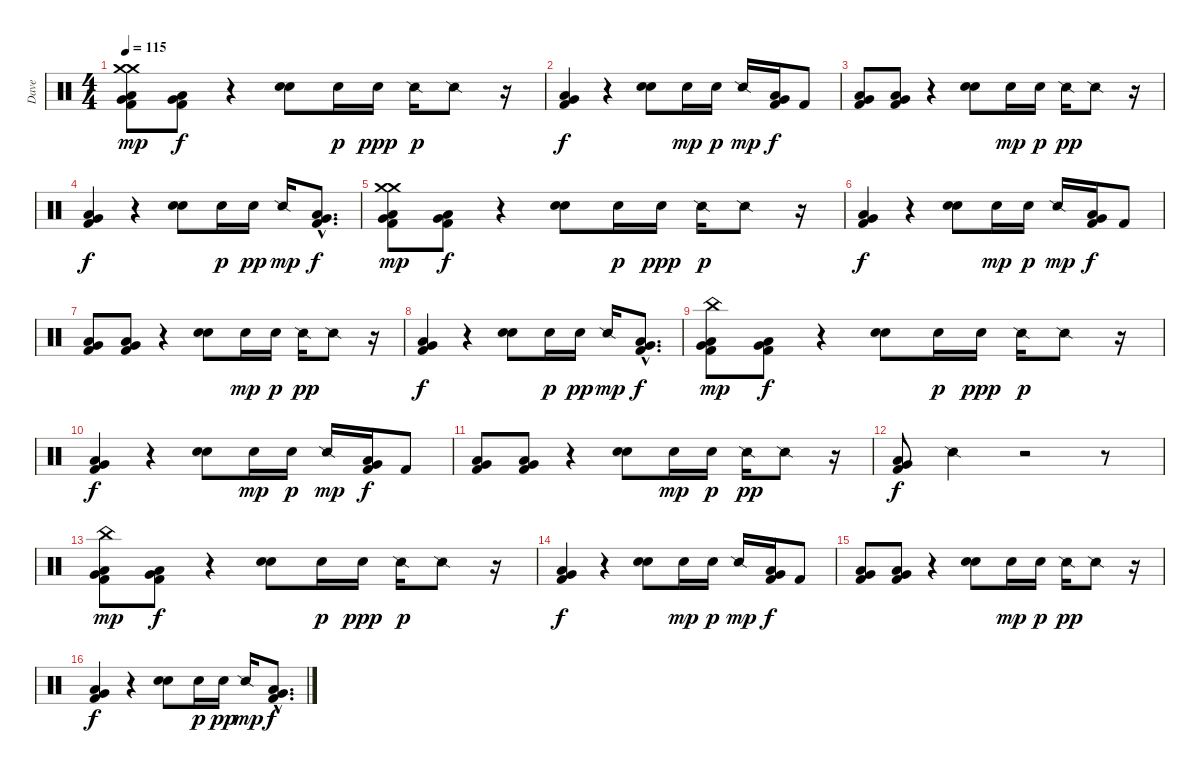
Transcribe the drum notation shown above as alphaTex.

\track ("Dave" "Dave") {instrument percussion}
\staff {score}
\articulation defaults
\ts (4 4)
\tempo 115
\clef neutral
\ks c
("Crash medium (hit)" "Crash medium (hit)" "Very Low Tom (hit)" "Low Floor Tom (hit)" "Kick (hit) 2").8{dy mp} ("Very Low Tom (hit)" "Low Floor Tom (hit)" "Kick (hit) 2").8{dy f} r.4 ("Hand Clap (hit)" "Electric Snare (hit)").8 "Hand Clap (hit)".16{dy p} "Hand Clap (hit)".16{dy ppp} "Snare (side stick) 2".16{dy p} "Snare (side stick) 2".8 r.16 |
("Very Low Tom (hit)" "Low Floor Tom (hit)" "Kick (hit) 2").4{dy f} r.4 ("Hand Clap (hit)" "Electric Snare (hit)").8 "Hand Clap (hit)".16{dy mp} "Hand Clap (hit)".16{dy p} "Snare (side stick) 2".16{dy mp} ("Very Low Tom (hit)" "Low Floor Tom (hit)" "Kick (hit) 2").16{dy f} "Kick (hit) 2".8 |
("Very Low Tom (hit)" "Low Floor Tom (hit)" "Kick (hit) 2").8 ("Very Low Tom (hit)" "Low Floor Tom (hit)" "Kick (hit) 2").8 r.4 ("Hand Clap (hit)" "Electric Snare (hit)").8 "Hand Clap (hit)".16{dy mp} "Hand Clap (hit)".16{dy p} "Snare (side stick) 2".16{dy pp} "Snare (side stick) 2".8 r.16 |
("Very Low Tom (hit)" "Low Floor Tom (hit)" "Kick (hit) 2").4{dy f} r.4 ("Hand Clap (hit)" "Electric Snare (hit)").8 "Hand Clap (hit)".16{dy p} "Hand Clap (hit)".16{dy pp} "Snare (side stick) 2".16{dy mp} ("Very Low Tom (hit)"{hac} "Low Floor Tom (hit)"{hac} "Kick (hit) 2"{hac}).8{d dy f} |
("Crash medium (hit)" "Crash medium (hit)" "Very Low Tom (hit)" "Low Floor Tom (hit)" "Kick (hit) 2").8{dy mp} ("Very Low Tom (hit)" "Low Floor Tom (hit)" "Kick (hit) 2").8{dy f} r.4 ("Hand Clap (hit)" "Electric Snare (hit)").8 "Hand Clap (hit)".16{dy p} "Hand Clap (hit)".16{dy ppp} "Snare (side stick) 2".16{dy p} "Snare (side stick) 2".8 r.16 |
("Very Low Tom (hit)" "Low Floor Tom (hit)" "Kick (hit) 2").4{dy f} r.4 ("Hand Clap (hit)" "Electric Snare (hit)").8 "Hand Clap (hit)".16{dy mp} "Hand Clap (hit)".16{dy p} "Snare (side stick) 2".16{dy mp} ("Very Low Tom (hit)" "Low Floor Tom (hit)" "Kick (hit) 2").16{dy f} "Kick (hit) 2".8 |
("Very Low Tom (hit)" "Low Floor Tom (hit)" "Kick (hit) 2").8 ("Very Low Tom (hit)" "Low Floor Tom (hit)" "Kick (hit) 2").8 r.4 ("Hand Clap (hit)" "Electric Snare (hit)").8 "Hand Clap (hit)".16{dy mp} "Hand Clap (hit)".16{dy p} "Snare (side stick) 2".16{dy pp} "Snare (side stick) 2".8 r.16 |
("Very Low Tom (hit)" "Low Floor Tom (hit)" "Kick (hit) 2").4{dy f} r.4 ("Hand Clap (hit)" "Electric Snare (hit)").8 "Hand Clap (hit)".16{dy p} "Hand Clap (hit)".16{dy pp} "Snare (side stick) 2".16{dy mp} ("Very Low Tom (hit)"{hac} "Low Floor Tom (hit)"{hac} "Kick (hit) 2"{hac}).8{d dy f} |
("China (hit)" "Very Low Tom (hit)" "Low Floor Tom (hit)" "Kick (hit) 2").8{dy mp} ("Very Low Tom (hit)" "Low Floor Tom (hit)" "Kick (hit) 2").8{dy f} r.4 ("Hand Clap (hit)" "Electric Snare (hit)").8 "Hand Clap (hit)".16{dy p} "Hand Clap (hit)".16{dy ppp} "Snare (side stick) 2".16{dy p} "Snare (side stick) 2".8 r.16 |
("Very Low Tom (hit)" "Low Floor Tom (hit)" "Kick (hit) 2").4{dy f} r.4 ("Hand Clap (hit)" "Electric Snare (hit)").8 "Hand Clap (hit)".16{dy mp} "Hand Clap (hit)".16{dy p} "Snare (side stick) 2".16{dy mp} ("Very Low Tom (hit)" "Low Floor Tom (hit)" "Kick (hit) 2").16{dy f} "Kick (hit) 2".8 |
("Very Low Tom (hit)" "Low Floor Tom (hit)" "Kick (hit) 2").8 ("Very Low Tom (hit)" "Low Floor Tom (hit)" "Kick (hit) 2").8 r.4 ("Hand Clap (hit)" "Electric Snare (hit)").8 "Hand Clap (hit)".16{dy mp} "Hand Clap (hit)".16{dy p} "Snare (side stick) 2".16{dy pp} "Snare (side stick) 2".8 r.16 |
("Very Low Tom (hit)" "Low Floor Tom (hit)" "Kick (hit) 2").8{dy f} "Snare (side stick) 2".4 r.2 r.8 |
("China (hit)" "Very Low Tom (hit)" "Low Floor Tom (hit)" "Kick (hit) 2").8{dy mp} ("Very Low Tom (hit)" "Low Floor Tom (hit)" "Kick (hit) 2").8{dy f} r.4 ("Hand Clap (hit)" "Electric Snare (hit)").8 "Hand Clap (hit)".16{dy p} "Hand Clap (hit)".16{dy ppp} "Snare (side stick) 2".16{dy p} "Snare (side stick) 2".8 r.16 |
("Very Low Tom (hit)" "Low Floor Tom (hit)" "Kick (hit) 2").4{dy f} r.4 ("Hand Clap (hit)" "Electric Snare (hit)").8 "Hand Clap (hit)".16{dy mp} "Hand Clap (hit)".16{dy p} "Snare (side stick) 2".16{dy mp} ("Very Low Tom (hit)" "Low Floor Tom (hit)" "Kick (hit) 2").16{dy f} "Kick (hit) 2".8 |
("Very Low Tom (hit)" "Low Floor Tom (hit)" "Kick (hit) 2").8 ("Very Low Tom (hit)" "Low Floor Tom (hit)" "Kick (hit) 2").8 r.4 ("Hand Clap (hit)" "Electric Snare (hit)").8 "Hand Clap (hit)".16{dy mp} "Hand Clap (hit)".16{dy p} "Snare (side stick) 2".16{dy pp} "Snare (side stick) 2".8 r.16 |
("Very Low Tom (hit)" "Low Floor Tom (hit)" "Kick (hit) 2").4{dy f} r.4 ("Hand Clap (hit)" "Electric Snare (hit)").8 "Hand Clap (hit)".16{dy p} "Hand Clap (hit)".16{dy pp} "Snare (side stick) 2".16{dy mp} ("Very Low Tom (hit)"{hac} "Low Floor Tom (hit)"{hac} "Kick (hit) 2"{hac}).8{d dy f}
